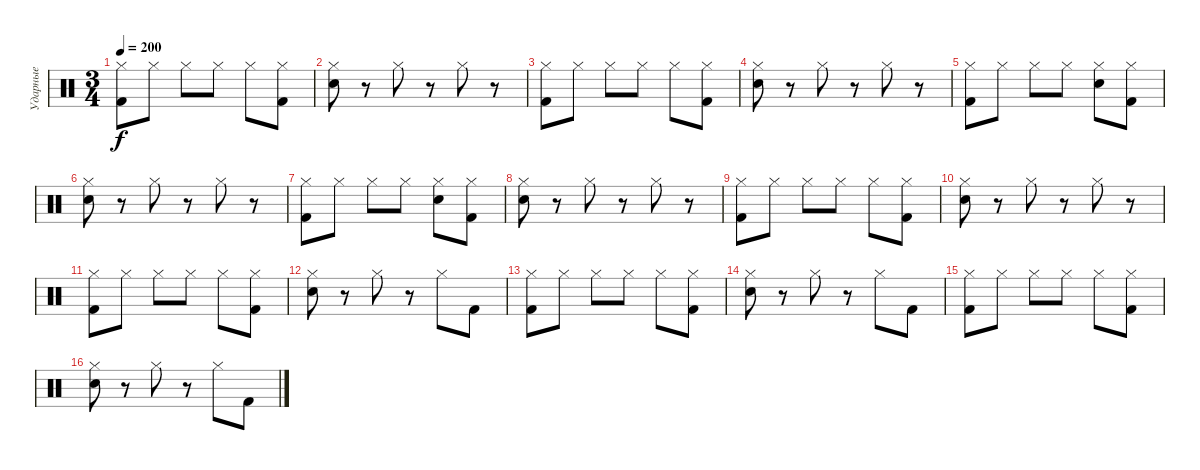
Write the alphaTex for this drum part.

\track ("Ударные" "Ударные") {instrument percussion}
\staff {score}
\articulation defaults
\ts (3 4)
\tempo 200
\clef neutral
\ks c
("Hi-Hat (closed)" "Kick (hit) 2").8{dy f} "Hi-Hat (closed)".8 "Hi-Hat (closed)".8 "Hi-Hat (closed)".8 "Hi-Hat (closed)".8 ("Hi-Hat (closed)" "Kick (hit) 2").8 |
("Hi-Hat (closed)" "Electric Snare (hit)").8 r.8 "Hi-Hat (closed)".8 r.8 "Hi-Hat (closed)".8 r.8 |
("Hi-Hat (closed)" "Kick (hit) 2").8 "Hi-Hat (closed)".8 "Hi-Hat (closed)".8 "Hi-Hat (closed)".8 "Hi-Hat (closed)".8 ("Hi-Hat (closed)" "Kick (hit) 2").8 |
("Hi-Hat (closed)" "Electric Snare (hit)").8 r.8 "Hi-Hat (closed)".8 r.8 "Hi-Hat (closed)".8 r.8 |
("Hi-Hat (closed)" "Kick (hit) 2").8 "Hi-Hat (closed)".8 "Hi-Hat (closed)".8 "Hi-Hat (closed)".8 ("Hi-Hat (closed)" "Electric Snare (hit)").8 ("Hi-Hat (closed)" "Kick (hit) 2").8 |
("Hi-Hat (closed)" "Electric Snare (hit)").8 r.8 "Hi-Hat (closed)".8 r.8 "Hi-Hat (closed)".8 r.8 |
("Hi-Hat (closed)" "Kick (hit) 2").8 "Hi-Hat (closed)".8 "Hi-Hat (closed)".8 "Hi-Hat (closed)".8 ("Hi-Hat (closed)" "Electric Snare (hit)").8 ("Hi-Hat (closed)" "Kick (hit) 2").8 |
("Hi-Hat (closed)" "Electric Snare (hit)").8 r.8 "Hi-Hat (closed)".8 r.8 "Hi-Hat (closed)".8 r.8 |
("Hi-Hat (closed)" "Kick (hit) 2").8 "Hi-Hat (closed)".8 "Hi-Hat (closed)".8 "Hi-Hat (closed)".8 "Hi-Hat (closed)".8 ("Hi-Hat (closed)" "Kick (hit) 2").8 |
("Hi-Hat (closed)" "Electric Snare (hit)").8 r.8 "Hi-Hat (closed)".8 r.8 "Hi-Hat (closed)".8 r.8 |
("Hi-Hat (closed)" "Kick (hit) 2").8 "Hi-Hat (closed)".8 "Hi-Hat (closed)".8 "Hi-Hat (closed)".8 "Hi-Hat (closed)".8 ("Hi-Hat (closed)" "Kick (hit) 2").8 |
("Hi-Hat (closed)" "Electric Snare (hit)").8 r.8 "Hi-Hat (closed)".8 r.8 "Hi-Hat (closed)".8 "Kick (hit) 2".8 |
("Hi-Hat (closed)" "Kick (hit) 2").8 "Hi-Hat (closed)".8 "Hi-Hat (closed)".8 "Hi-Hat (closed)".8 "Hi-Hat (closed)".8 ("Hi-Hat (closed)" "Kick (hit) 2").8 |
("Hi-Hat (closed)" "Electric Snare (hit)").8 r.8 "Hi-Hat (closed)".8 r.8 "Hi-Hat (closed)".8 "Kick (hit) 2".8 |
("Hi-Hat (closed)" "Kick (hit) 2").8 "Hi-Hat (closed)".8 "Hi-Hat (closed)".8 "Hi-Hat (closed)".8 "Hi-Hat (closed)".8 ("Hi-Hat (closed)" "Kick (hit) 2").8 |
("Hi-Hat (closed)" "Electric Snare (hit)").8 r.8 "Hi-Hat (closed)".8 r.8 "Hi-Hat (closed)".8 "Kick (hit) 2".8
